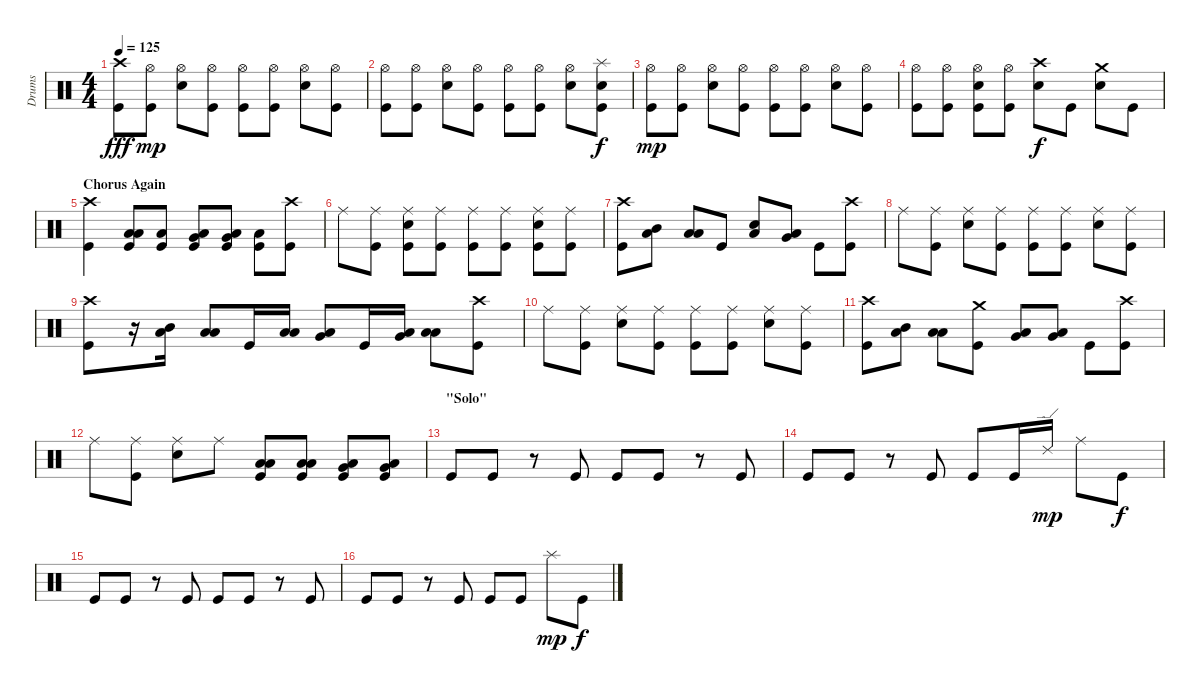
\track ("Drums" "Drums") {instrument percussion}
\staff {score}
\articulation defaults
\ts (4 4)
\tempo 125
\clef neutral
\ks c
("Crash high (hit)" "Kick (hit)").8{dy fff} ("Hi-Hat (open)" "Kick (hit)").8{dy mp} ("Hi-Hat (open)" "Snare (hit) 2").8 ("Hi-Hat (open)" "Kick (hit)").8 ("Hi-Hat (open)" "Kick (hit)").8 ("Hi-Hat (open)" "Kick (hit)").8 ("Hi-Hat (open)" "Snare (hit) 2").8 ("Hi-Hat (open)" "Kick (hit)").8 |
("Hi-Hat (open)" "Kick (hit)").8 ("Hi-Hat (open)" "Kick (hit)").8 ("Hi-Hat (open)" "Snare (hit) 2").8 ("Hi-Hat (open)" "Kick (hit)").8 ("Hi-Hat (open)" "Kick (hit)").8 ("Hi-Hat (open)" "Kick (hit)").8 ("Hi-Hat (open)" "Snare (hit) 2").8 ("Splash (hit)" "Snare (hit) 2" "Kick (hit)").8{dy f} |
("Hi-Hat (open)" "Kick (hit)").8{dy mp} ("Hi-Hat (open)" "Kick (hit)").8 ("Hi-Hat (open)" "Snare (hit) 2").8 ("Hi-Hat (open)" "Kick (hit)").8 ("Hi-Hat (open)" "Kick (hit)").8 ("Hi-Hat (open)" "Kick (hit)").8 ("Hi-Hat (open)" "Snare (hit) 2").8 ("Hi-Hat (open)" "Kick (hit)").8 |
("Hi-Hat (open)" "Kick (hit)").8 ("Hi-Hat (open)" "Kick (hit)").8 ("Hi-Hat (open)" "Snare (hit) 2" "Kick (hit)").8 ("Hi-Hat (open)" "Kick (hit)").8 ("Crash high (hit)" "Snare (hit) 2").8{dy f} "Kick (hit)".8 ("Crash medium (hit)" "Snare (hit) 2").8 "Kick (hit)".8 |
\section ("" "Chorus Again")
("Crash high (hit)" "Kick (hit)").4 ("Low Tom (hit)" "Low Floor Tom (hit)" "Kick (hit)").8 ("Low Floor Tom (hit)" "Kick (hit)").8 ("Very Low Tom (hit)" "Low Floor Tom (hit)" "Kick (hit)").8 ("Very Low Tom (hit)" "Low Floor Tom (hit)" "Kick (hit)").8 ("Low Floor Tom (hit)" "Kick (hit)").8 ("Crash high (hit)" "Kick (hit)").8 |
"Ride (middle)".8 ("Ride (middle)" "Kick (hit)").8 ("Ride (middle)" "Snare (hit) 2" "Kick (hit)").8 ("Ride (middle)" "Kick (hit)").8 ("Ride (middle)" "Kick (hit)").8 ("Ride (middle)" "Kick (hit)").8 ("Ride (middle)" "Snare (hit) 2" "Kick (hit)").8 ("Ride (middle)" "Kick (hit)").8 |
("Crash high (hit)" "Kick (hit)").8 ("Mid Tom (hit)" "Low Floor Tom (hit)").8 ("Low Tom (hit)" "Low Floor Tom (hit)").8 "Kick (hit)".8 ("Snare (hit) 2" "Low Floor Tom (hit)").8 ("Very Low Tom (hit)" "Low Floor Tom (hit)").8 "Kick (hit)".8 ("Crash high (hit)" "Kick (hit)").8 |
"Ride (middle)".8 ("Ride (middle)" "Kick (hit)").8 ("Ride (middle)" "Snare (hit) 2").8 ("Ride (middle)" "Kick (hit)").8 ("Ride (middle)" "Kick (hit)").8 ("Ride (middle)" "Kick (hit)").8 ("Ride (middle)" "Snare (hit) 2").8 ("Ride (middle)" "Kick (hit)").8 |
("Crash high (hit)" "Kick (hit)").8 r.16 ("Mid Tom (hit)" "Low Floor Tom (hit)").16 ("Low Tom (hit)" "Low Floor Tom (hit)").8 "Kick (hit)".16 ("Low Tom (hit)" "Low Floor Tom (hit)").16 ("Very Low Tom (hit)" "Low Floor Tom (hit)").8 "Kick (hit)".16 ("Very Low Tom (hit)" "Low Floor Tom (hit)").16 ("Low Floor Tom (hit)" "Low Floor Tom (hit)").8 ("Crash high (hit)" "Kick (hit)").8 |
"Ride (middle)".8 ("Ride (middle)" "Kick (hit)").8 ("Ride (middle)" "Snare (hit) 2").8 ("Ride (middle)" "Kick (hit)").8 ("Ride (middle)" "Kick (hit)").8 ("Ride (middle)" "Kick (hit)").8 ("Ride (middle)" "Snare (hit) 2").8 ("Ride (middle)" "Kick (hit)").8 |
("Crash high (hit)" "Kick (hit)").8 ("Mid Tom (hit)" "Low Floor Tom (hit)").8 ("Low Tom (hit)" "Low Floor Tom (hit)").8 ("Crash medium (hit)" "Kick (hit)").8 ("Very Low Tom (hit)" "Low Floor Tom (hit)").8 ("Very Low Tom (hit)" "Low Floor Tom (hit)").8 "Kick (hit)".8 ("Crash high (hit)" "Kick (hit)").8 |
"Ride (middle)".8 ("Ride (middle)" "Kick (hit)").8 ("Ride (middle)" "Snare (hit) 2").8 "Ride (middle)".8 ("Low Tom (hit)" "Low Floor Tom (hit)" "Kick (hit)").8 ("Low Tom (hit)" "Low Floor Tom (hit)" "Kick (hit)").8 ("Very Low Tom (hit)" "Low Floor Tom (hit)" "Kick (hit)").8 ("Very Low Tom (hit)" "Low Floor Tom (hit)" "Kick (hit)").8 |
\section ("" "\"Solo\"")
"Kick (hit)".8 "Kick (hit)".8 r.8 "Kick (hit)".8 "Kick (hit)".8 "Kick (hit)".8 r.8 "Kick (hit)".8 |
"Kick (hit)".8 "Kick (hit)".8 r.8 "Kick (hit)".8 "Kick (hit)".8 "Kick (hit)".16 "Ride (edge) 2".16{dy mp} "Ride (middle)".8 "Kick (hit)".8{dy f} |
"Kick (hit)".8 "Kick (hit)".8 r.8 "Kick (hit)".8 "Kick (hit)".8 "Kick (hit)".8 r.8 "Kick (hit)".8 |
"Kick (hit)".8 "Kick (hit)".8 r.8 "Kick (hit)".8 "Kick (hit)".8 "Kick (hit)".8 "Splash (hit)".8{dy mp} "Kick (hit)".8{dy f}
